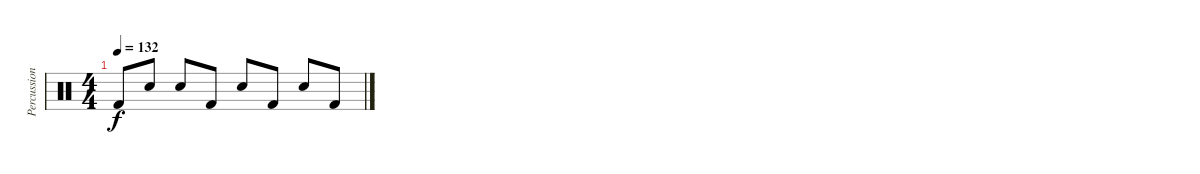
\track ("Percussion" "Percussion") {instrument percussion}
\staff {score}
\articulation defaults
\ts (4 4)
\tempo 132
\clef neutral
\ks c "Kick (hit) 2".8{dy f} "Snare (hit) 2".8 "Snare (hit) 2".8 "Kick (hit) 2".8 "Snare (hit) 2".8 "Kick (hit) 2".8 "Snare (hit) 2".8 "Kick (hit) 2".8
